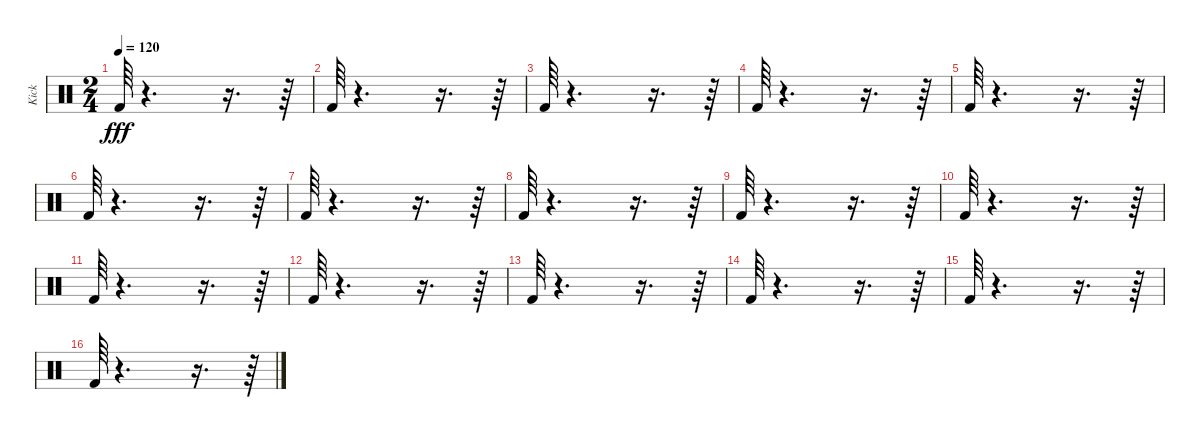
\track ("Kick" "Kick") {instrument percussion}
\staff {score}
\articulation defaults
\ts (2 4)
\tempo 120
\clef neutral
\ks c "Kick (hit) 2".64{dy fff}
r.4{d} r.16{d} r.64 |
"Kick (hit) 2".64 r.4{d} r.16{d} r.64 |
"Kick (hit) 2".64 r.4{d} r.16{d} r.64 |
"Kick (hit) 2".64 r.4{d} r.16{d} r.64 |
"Kick (hit) 2".64 r.4{d} r.16{d} r.64 |
"Kick (hit) 2".64 r.4{d} r.16{d} r.64 |
"Kick (hit) 2".64 r.4{d} r.16{d} r.64 |
"Kick (hit) 2".64 r.4{d} r.16{d} r.64 |
"Kick (hit) 2".64 r.4{d} r.16{d} r.64 |
"Kick (hit) 2".64 r.4{d} r.16{d} r.64 |
"Kick (hit) 2".64 r.4{d} r.16{d} r.64 |
"Kick (hit) 2".64 r.4{d} r.16{d} r.64 |
"Kick (hit) 2".64 r.4{d} r.16{d} r.64 |
"Kick (hit) 2".64 r.4{d} r.16{d} r.64 |
"Kick (hit) 2".64 r.4{d} r.16{d} r.64 |
"Kick (hit) 2".64 r.4{d} r.16{d} r.64
